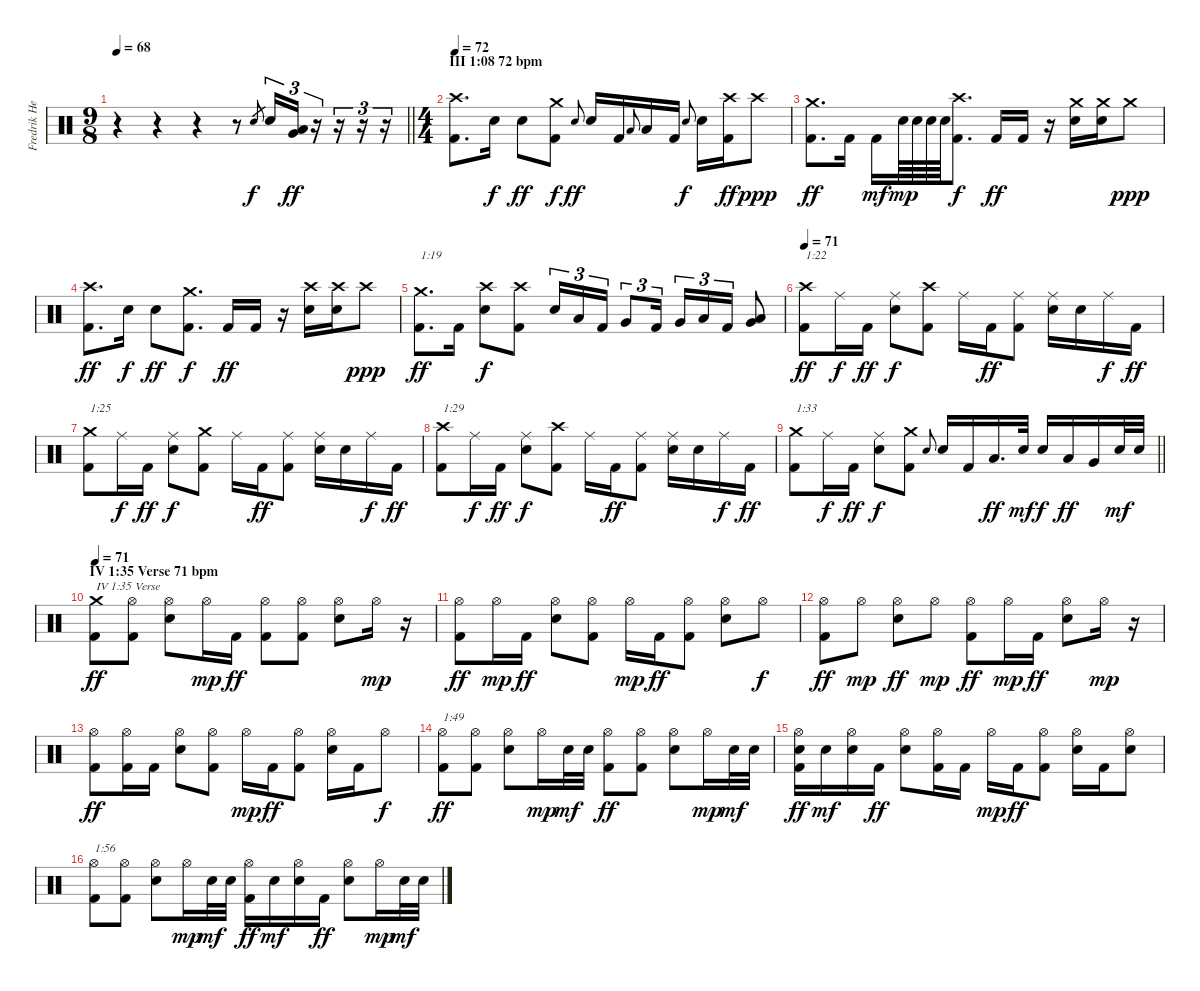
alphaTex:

\track ("Fredrik Hellerström (Drums)" "Fredrik He") {instrument percussion}
\staff
\articulation defaults
\ts (9 8)
\tempo 68
\clef neutral
\barLineRight lightlight
\ks c
r.4{dy f} r.4 r.4 r.8 "Electric Snare (hit)".8{gr} "Electric Snare (hit)".16{tu (3 2)} ("Low Floor Tom (hit)" "Very Low Tom (hit)").16{tu (3 2) dy ff} r.16{tu (3 2)} r.16{tu (3 2)} r.16{tu (3 2)} r.16{tu (3 2)} |
\ts (4 4)
\section ("" "III 1:08 72 bpm")
\tempo 72
("Crash high (hit)" "Kick (hit) 2").8{d} "Electric Snare (hit)".16{dy f} "Electric Snare (hit)".8{dy ff} ("Crash medium (hit)" "Kick (hit) 2").8{dy f} "Electric Snare (hit)".8{gr onbeat dy ff} "Electric Snare (hit)".16 "Kick (hit) 2".16 "Low Tom (hit)".8{gr onbeat} "Low Tom (hit)".16 "Kick (hit) 2".16 "Electric Snare (hit)".8{gr onbeat dy f} "Electric Snare (hit)".16 ("Crash high (hit)" "Kick (hit) 2").16{dy ff} "Crash high (hit)".8{dy ppp} |
("Crash medium (hit)" "Kick (hit) 2").8{d dy ff} "Kick (hit) 2".16 "Kick (hit) 2".16{dy mf} "Electric Snare (hit)".64{dy mp} "Electric Snare (hit)".64 "Electric Snare (hit)".64 "Electric Snare (hit)".64 ("Crash high (hit)" "Kick (hit) 2").8{d dy f} "Kick (hit) 2".16{dy ff} "Kick (hit) 2".16 r.16 ("Crash medium (hit)" "Electric Snare (hit)").16 ("Crash medium (hit)" "Electric Snare (hit)").16 "Crash medium (hit)".8{dy ppp} |
("Crash high (hit)" "Kick (hit) 2").8{d dy ff} "Electric Snare (hit)".16{dy f} "Electric Snare (hit)".8{dy ff} ("Crash medium (hit)" "Kick (hit) 2").8{d dy f} "Kick (hit) 2".16{dy ff} "Kick (hit) 2".16 r.16 ("Crash high (hit)" "Electric Snare (hit)").16 ("Crash high (hit)" "Electric Snare (hit)").16 "Crash high (hit)".8{dy ppp} |
("Crash medium (hit)" "Kick (hit) 2").8{d txt "1:19" dy ff} "Kick (hit) 2".16 ("Crash high (hit)" "Electric Snare (hit)").8{dy f} ("Crash high (hit)" "Kick (hit) 2").8 "Electric Snare (hit)".16{tu (3 2)} "Low Tom (hit)".16{tu (3 2)} "Kick (hit) 2".16{tu (3 2)} "Very Low Tom (hit)".8{tu (3 2)} "Kick (hit) 2".16{tu (3 2)} "Very Low Tom (hit)".16{tu (3 2)} "Low Floor Tom (hit)".16{tu (3 2)} "Kick (hit) 2".16{tu (3 2)} ("Low Floor Tom (hit)" "Very Low Tom (hit)").8 |
\tempo 71
("Crash high (hit)" "Kick (hit) 2").8{txt "1:22" dy ff} "Ride (middle)".16{dy f} "Kick (hit) 2".16{dy ff} ("Ride (middle)" "Electric Snare (hit)").8{dy f} ("Crash high (hit)" "Kick (hit) 2").8 "Ride (middle)".16 "Kick (hit) 2".16{dy ff} ("Ride (middle)" "Kick (hit) 2").8 ("Ride (middle)" "Electric Snare (hit)").16 "Electric Snare (hit)".16 "Ride (middle)".16{dy f} "Kick (hit) 2".16{dy ff} |
("Crash medium (hit)" "Kick (hit) 2").8{txt "1:25"} "Ride (middle)".16{dy f} "Kick (hit) 2".16{dy ff} ("Ride (middle)" "Electric Snare (hit)").8{dy f} ("Crash medium (hit)" "Kick (hit) 2").8 "Ride (middle)".16 "Kick (hit) 2".16{dy ff} ("Ride (middle)" "Kick (hit) 2").8 ("Ride (middle)" "Electric Snare (hit)").16 "Electric Snare (hit)".16 "Ride (middle)".16{dy f} "Kick (hit) 2".16{dy ff} |
("Crash high (hit)" "Kick (hit) 2").8{txt "1:29"} "Ride (middle)".16{dy f} "Kick (hit) 2".16{dy ff} ("Ride (middle)" "Electric Snare (hit)").8{dy f} ("Crash high (hit)" "Kick (hit) 2").8 "Ride (middle)".16 "Kick (hit) 2".16{dy ff} ("Ride (middle)" "Kick (hit) 2").8 ("Ride (middle)" "Electric Snare (hit)").16 "Electric Snare (hit)".16 "Ride (middle)".16{dy f} "Kick (hit) 2".16{dy ff} |
\barLineRight lightlight
("Crash medium (hit)" "Kick (hit) 2").8{txt "1:33"} "Ride (middle)".16{dy f} "Kick (hit) 2".16{dy ff} ("Ride (middle)" "Electric Snare (hit)").8{dy f} ("Crash medium (hit)" "Kick (hit) 2").8 "Electric Snare (hit)".8{gr onbeat} "Electric Snare (hit)".16 "Kick (hit) 2".16 "Low Tom (hit)".16{d dy ff} "Electric Snare (hit)".32{dy mf} "Electric Snare (hit)".16{dy f} "Low Tom (hit)".16{dy ff} "Very Low Tom (hit)".16 "Electric Snare (hit)".32{dy mf} "Electric Snare (hit)".32 |
\section ("" "IV 1:35 Verse 71 bpm")
\tempo 71
("Crash medium (hit)" "Kick (hit) 2").8{txt "IV 1:35 Verse " dy ff} ("Hi-Hat (open)" "Kick (hit) 2").8 ("Hi-Hat (open)" "Electric Snare (hit)").8 "Hi-Hat (open)".16{dy mp} "Kick (hit) 2".16{dy ff} ("Hi-Hat (open)" "Kick (hit) 2").8 ("Hi-Hat (open)" "Kick (hit) 2").8 ("Hi-Hat (open)" "Electric Snare (hit)").8 "Hi-Hat (open)".16{dy mp} r.16 |
("Hi-Hat (open)" "Kick (hit) 2").8{dy ff} "Hi-Hat (open)".16{dy mp} "Kick (hit) 2".16{dy ff} ("Hi-Hat (open)" "Electric Snare (hit)").8 ("Hi-Hat (open)" "Kick (hit) 2").8 "Hi-Hat (open)".16{dy mp} "Kick (hit) 2".16{dy ff} ("Hi-Hat (open)" "Kick (hit) 2").8 ("Hi-Hat (open)" "Electric Snare (hit)").8 "Hi-Hat (open)".8{dy f} |
("Hi-Hat (open)" "Kick (hit) 2").8{dy ff} "Hi-Hat (open)".8{dy mp} ("Hi-Hat (open)" "Electric Snare (hit)").8{dy ff} "Hi-Hat (open)".8{dy mp} ("Hi-Hat (open)" "Kick (hit) 2").8{dy ff} "Hi-Hat (open)".16{dy mp} "Kick (hit) 2".16{dy ff} ("Hi-Hat (open)" "Electric Snare (hit)").8 "Hi-Hat (open)".16{dy mp} r.16 |
("Hi-Hat (open)" "Kick (hit) 2").8{dy ff} ("Hi-Hat (open)" "Kick (hit) 2").16 "Kick (hit) 2".16 ("Hi-Hat (open)" "Electric Snare (hit)").8 ("Hi-Hat (open)" "Kick (hit) 2").8 "Hi-Hat (open)".16{dy mp} "Kick (hit) 2".16{dy ff} ("Hi-Hat (open)" "Kick (hit) 2").8 ("Hi-Hat (open)" "Electric Snare (hit)").16 "Kick (hit) 2".16 "Hi-Hat (open)".8{dy f} |
("Hi-Hat (open)" "Kick (hit) 2").8{txt "1:49" dy ff} ("Hi-Hat (open)" "Kick (hit) 2").8 ("Hi-Hat (open)" "Electric Snare (hit)").8 "Hi-Hat (open)".16{dy mp} "Electric Snare (hit)".32{dy mf} "Electric Snare (hit)".32 ("Hi-Hat (open)" "Kick (hit) 2").8{dy ff} ("Hi-Hat (open)" "Kick (hit) 2").8 ("Hi-Hat (open)" "Electric Snare (hit)").8 "Hi-Hat (open)".16{dy mp} "Electric Snare (hit)".32{dy mf} "Electric Snare (hit)".32 |
("Hi-Hat (open)" "Electric Snare (hit)" "Kick (hit) 2").16{dy ff} "Electric Snare (hit)".16{dy mf} ("Hi-Hat (open)" "Electric Snare (hit)").16 "Kick (hit) 2".16{dy ff} ("Hi-Hat (open)" "Electric Snare (hit)").8 ("Hi-Hat (open)" "Kick (hit) 2").16 "Kick (hit) 2".16 "Hi-Hat (open)".16{dy mp} "Kick (hit) 2".16{dy ff} ("Hi-Hat (open)" "Kick (hit) 2").8 ("Hi-Hat (open)" "Electric Snare (hit)").16 "Kick (hit) 2".16 ("Hi-Hat (open)" "Electric Snare (hit)").8 |
("Hi-Hat (open)" "Kick (hit) 2").8{txt "1:56"} ("Hi-Hat (open)" "Kick (hit) 2").8 ("Hi-Hat (open)" "Electric Snare (hit)").8 "Hi-Hat (open)".16{dy mp} "Electric Snare (hit)".32{dy mf} "Electric Snare (hit)".32 ("Hi-Hat (open)" "Kick (hit) 2").16{dy ff} "Electric Snare (hit)".16{dy mf} ("Hi-Hat (open)" "Electric Snare (hit)").16 "Kick (hit) 2".16{dy ff} ("Hi-Hat (open)" "Electric Snare (hit)").8 "Hi-Hat (open)".16{dy mp} "Electric Snare (hit)".32{dy mf} "Electric Snare (hit)".32
